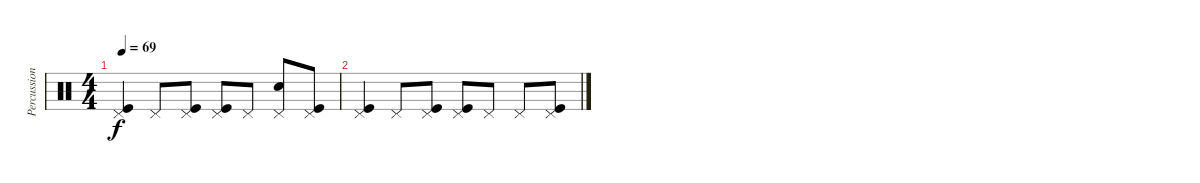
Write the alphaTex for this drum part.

\track ("Percussion" "Percussion") {instrument percussion}
\staff {score}
\articulation defaults
\ts (4 4)
\tempo 69
\clef neutral
\ks c
("Pedal Hi-Hat (hit)" "Kick (hit)").4{dy f} "Pedal Hi-Hat (hit)".8 ("Pedal Hi-Hat (hit)" "Kick (hit)").8 ("Pedal Hi-Hat (hit)" "Kick (hit)").8 "Pedal Hi-Hat (hit)".8 ("Pedal Hi-Hat (hit)" "Snare (hit) 2").8 ("Pedal Hi-Hat (hit)" "Kick (hit)").8 |
("Pedal Hi-Hat (hit)" "Kick (hit)").4 "Pedal Hi-Hat (hit)".8 ("Pedal Hi-Hat (hit)" "Kick (hit)").8 ("Pedal Hi-Hat (hit)" "Kick (hit)").8 "Pedal Hi-Hat (hit)".8 "Pedal Hi-Hat (hit)".8 ("Pedal Hi-Hat (hit)" "Kick (hit)").8
